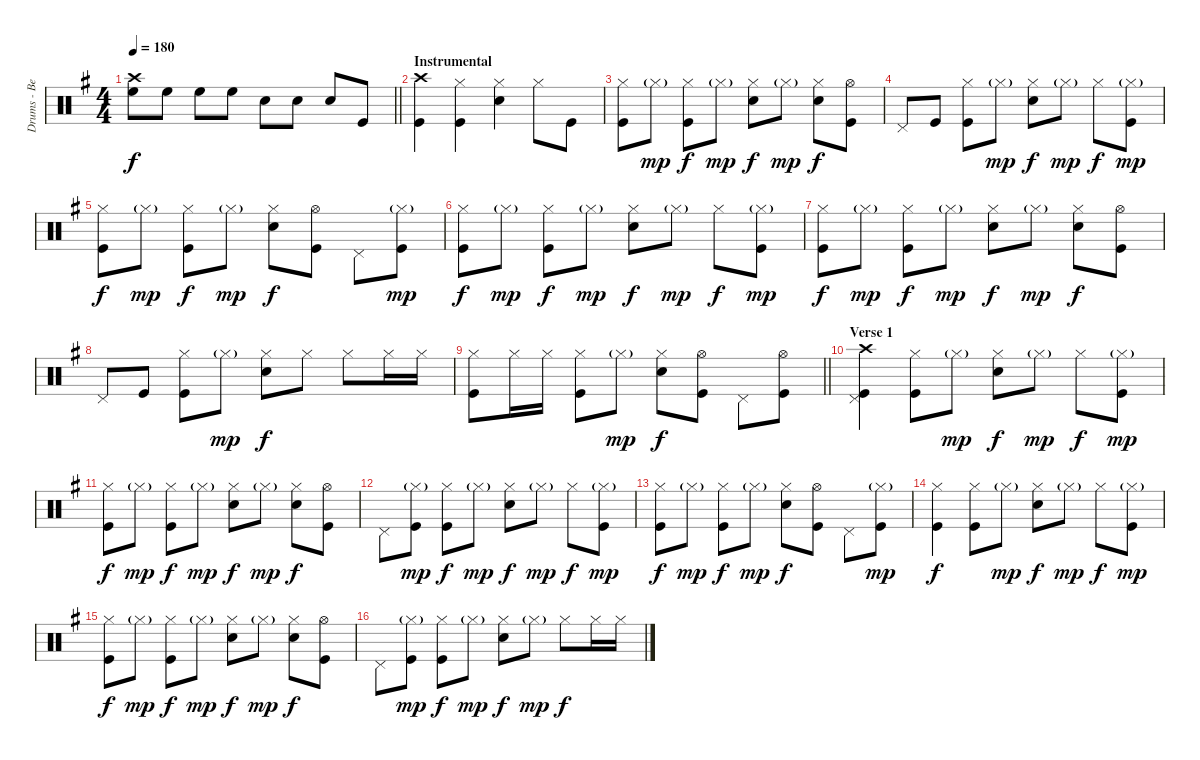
\track ("Drums - Ben Johnston" "Drums - Be") {instrument percussion}
\staff {score}
\articulation defaults
\ts (4 4)
\tempo 180
\clef neutral
\barLineRight lightlight
\ks eminor
("Crash high (hit)" "High Floor Tom (hit)").8{dy f} "High Floor Tom (hit)".8 "High Floor Tom (hit)".8 "High Floor Tom (hit)".8 "Snare (hit) 2".8 "Snare (hit) 2".8 "Snare (hit) 2".8 "Kick (hit)".8 |
\section ("" "Instrumental")
("Crash high (hit)" "Kick (hit)").4 ("Hi-Hat (closed)" "Kick (hit)").4 ("Hi-Hat (closed)" "Snare (hit) 2").4 "Hi-Hat (closed)".8 "Kick (hit)".8 |
("Hi-Hat (closed)" "Kick (hit)").8 "Hi-Hat (closed)"{g}.8{dy mp} ("Hi-Hat (closed)" "Kick (hit)").8{dy f} "Hi-Hat (closed)"{g}.8{dy mp} ("Hi-Hat (closed)" "Snare (hit) 2").8{dy f} "Hi-Hat (closed)"{g}.8{dy mp} ("Hi-Hat (closed)" "Snare (hit) 2").8{dy f} ("Hi-Hat (open)" "Kick (hit)").8 |
"Pedal Hi-Hat (hit)".8 "Kick (hit)".8 ("Hi-Hat (closed)" "Kick (hit)").8 "Hi-Hat (closed)"{g}.8{dy mp} ("Hi-Hat (closed)" "Snare (hit) 2").8{dy f} "Hi-Hat (closed)"{g}.8{dy mp} "Hi-Hat (closed)".8{dy f} ("Hi-Hat (closed)"{g} "Kick (hit)").8{dy mp} |
("Hi-Hat (closed)" "Kick (hit)").8{dy f} "Hi-Hat (closed)"{g}.8{dy mp} ("Hi-Hat (closed)" "Kick (hit)").8{dy f} "Hi-Hat (closed)"{g}.8{dy mp} ("Hi-Hat (closed)" "Snare (hit) 2").8{dy f} ("Hi-Hat (open)" "Kick (hit)").8 "Pedal Hi-Hat (hit)".8 ("Hi-Hat (closed)"{g} "Kick (hit)").8{dy mp} |
("Hi-Hat (closed)" "Kick (hit)").8{dy f} "Hi-Hat (closed)"{g}.8{dy mp} ("Hi-Hat (closed)" "Kick (hit)").8{dy f} "Hi-Hat (closed)"{g}.8{dy mp} ("Hi-Hat (closed)" "Snare (hit) 2").8{dy f} "Hi-Hat (closed)"{g}.8{dy mp} "Hi-Hat (closed)".8{dy f} ("Hi-Hat (closed)"{g} "Kick (hit)").8{dy mp} |
("Hi-Hat (closed)" "Kick (hit)").8{dy f} "Hi-Hat (closed)"{g}.8{dy mp} ("Hi-Hat (closed)" "Kick (hit)").8{dy f} "Hi-Hat (closed)"{g}.8{dy mp} ("Hi-Hat (closed)" "Snare (hit) 2").8{dy f} "Hi-Hat (closed)"{g}.8{dy mp} ("Hi-Hat (closed)" "Snare (hit) 2").8{dy f} ("Hi-Hat (open)" "Kick (hit)").8 |
"Pedal Hi-Hat (hit)".8 "Kick (hit)".8 ("Hi-Hat (closed)" "Kick (hit)").8 "Hi-Hat (closed)"{g}.8{dy mp} ("Hi-Hat (closed)" "Snare (hit) 2").8{dy f} "Hi-Hat (closed)".8 "Hi-Hat (closed)".8 "Hi-Hat (closed)".16 "Hi-Hat (closed)".16 |
\barLineRight lightlight
("Hi-Hat (closed)" "Kick (hit)").8 "Hi-Hat (closed)".16 "Hi-Hat (closed)".16 ("Hi-Hat (closed)" "Kick (hit)").8 "Hi-Hat (closed)"{g}.8{dy mp} ("Hi-Hat (closed)" "Snare (hit) 2").8{dy f} ("Hi-Hat (open)" "Kick (hit)").8 "Pedal Hi-Hat (hit)".8 ("Hi-Hat (open)" "Kick (hit)").8 |
\section ("" "Verse 1")
("Crash high (hit)" "Pedal Hi-Hat (hit)" "Kick (hit)").4 ("Hi-Hat (closed)" "Kick (hit)").8 "Hi-Hat (closed)"{g}.8{dy mp} ("Hi-Hat (closed)" "Snare (hit) 2").8{dy f} "Hi-Hat (closed)"{g}.8{dy mp} "Hi-Hat (closed)".8{dy f} ("Hi-Hat (closed)"{g} "Kick (hit)").8{dy mp} |
("Hi-Hat (closed)" "Kick (hit)").8{dy f} "Hi-Hat (closed)"{g}.8{dy mp} ("Hi-Hat (closed)" "Kick (hit)").8{dy f} "Hi-Hat (closed)"{g}.8{dy mp} ("Hi-Hat (closed)" "Snare (hit) 2").8{dy f} "Hi-Hat (closed)"{g}.8{dy mp} ("Hi-Hat (closed)" "Snare (hit) 2").8{dy f} ("Hi-Hat (open)" "Kick (hit)").8 |
"Pedal Hi-Hat (hit)".8 ("Hi-Hat (closed)"{g} "Kick (hit)").8{dy mp} ("Hi-Hat (closed)" "Kick (hit)").8{dy f} "Hi-Hat (closed)"{g}.8{dy mp} ("Hi-Hat (closed)" "Snare (hit) 2").8{dy f} "Hi-Hat (closed)"{g}.8{dy mp} "Hi-Hat (closed)".8{dy f} ("Hi-Hat (closed)"{g} "Kick (hit)").8{dy mp} |
("Hi-Hat (closed)" "Kick (hit)").8{dy f} "Hi-Hat (closed)"{g}.8{dy mp} ("Hi-Hat (closed)" "Kick (hit)").8{dy f} "Hi-Hat (closed)"{g}.8{dy mp} ("Hi-Hat (closed)" "Snare (hit) 2").8{dy f} ("Hi-Hat (open)" "Kick (hit)").8 "Pedal Hi-Hat (hit)".8 ("Hi-Hat (closed)"{g} "Kick (hit)").8{dy mp} |
("Hi-Hat (closed)" "Kick (hit)").4{dy f} ("Hi-Hat (closed)" "Kick (hit)").8 "Hi-Hat (closed)"{g}.8{dy mp} ("Hi-Hat (closed)" "Snare (hit) 2").8{dy f} "Hi-Hat (closed)"{g}.8{dy mp} "Hi-Hat (closed)".8{dy f} ("Hi-Hat (closed)"{g} "Kick (hit)").8{dy mp} |
("Hi-Hat (closed)" "Kick (hit)").8{dy f} "Hi-Hat (closed)"{g}.8{dy mp} ("Hi-Hat (closed)" "Kick (hit)").8{dy f} "Hi-Hat (closed)"{g}.8{dy mp} ("Hi-Hat (closed)" "Snare (hit) 2").8{dy f} "Hi-Hat (closed)"{g}.8{dy mp} ("Hi-Hat (closed)" "Snare (hit) 2").8{dy f} ("Hi-Hat (open)" "Kick (hit)").8 |
"Pedal Hi-Hat (hit)".8 ("Hi-Hat (closed)"{g} "Kick (hit)").8{dy mp} ("Hi-Hat (closed)" "Kick (hit)").8{dy f} "Hi-Hat (closed)"{g}.8{dy mp} ("Hi-Hat (closed)" "Snare (hit) 2").8{dy f} "Hi-Hat (closed)"{g}.8{dy mp} "Hi-Hat (closed)".8{dy f} "Hi-Hat (closed)".16 "Hi-Hat (closed)".16
